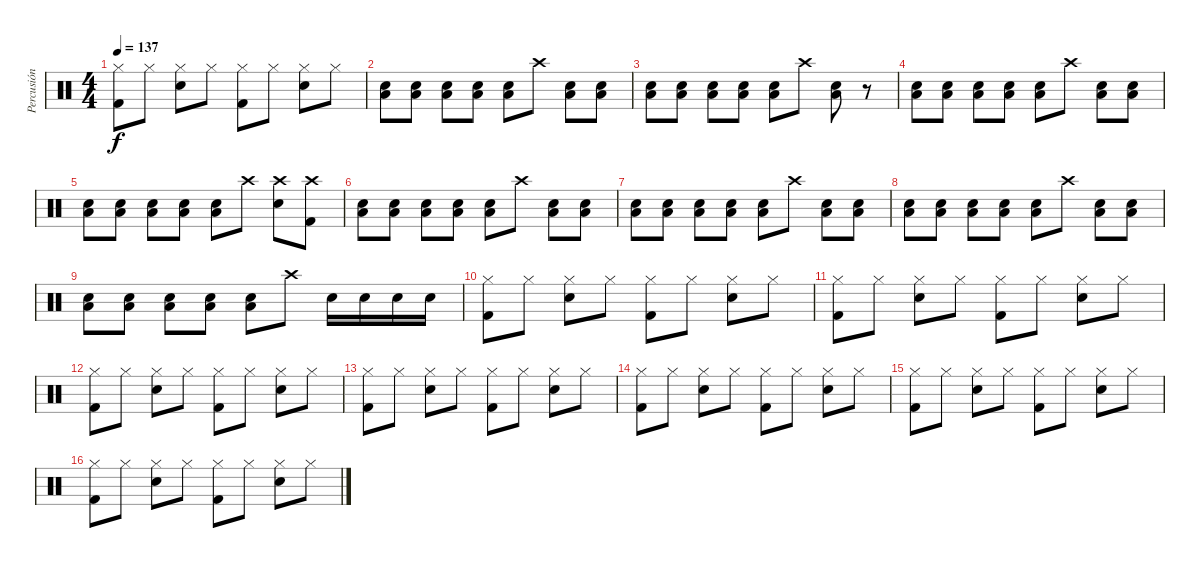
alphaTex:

\track ("Percusión" "Percusión") {instrument percussion}
\staff {score}
\articulation defaults
\ts (4 4)
\tempo 137
\clef neutral
\ks c
("Hi-Hat (closed)" "Kick (hit) 2").8{dy f} "Hi-Hat (closed)".8 ("Hi-Hat (closed)" "Electric Snare (hit)").8 "Hi-Hat (closed)".8 ("Hi-Hat (closed)" "Kick (hit) 2").8 "Hi-Hat (closed)".8 ("Hi-Hat (closed)" "Electric Snare (hit)").8 "Hi-Hat (closed)".8 |
("Electric Snare (hit)" "Low Floor Tom (hit)").8 ("Electric Snare (hit)" "Low Floor Tom (hit)").8 ("Electric Snare (hit)" "Low Floor Tom (hit)").8 ("Electric Snare (hit)" "Low Floor Tom (hit)").8 ("Electric Snare (hit)" "Low Floor Tom (hit)").8 "Crash high (hit)".8 ("Electric Snare (hit)" "Low Floor Tom (hit)").8 ("Electric Snare (hit)" "Low Floor Tom (hit)").8 |
("Electric Snare (hit)" "Low Floor Tom (hit)").8 ("Electric Snare (hit)" "Low Floor Tom (hit)").8 ("Electric Snare (hit)" "Low Floor Tom (hit)").8 ("Electric Snare (hit)" "Low Floor Tom (hit)").8 ("Electric Snare (hit)" "Low Floor Tom (hit)").8 "Crash high (hit)".8 ("Electric Snare (hit)" "Low Floor Tom (hit)").8 r.8 |
("Electric Snare (hit)" "Low Floor Tom (hit)").8 ("Electric Snare (hit)" "Low Floor Tom (hit)").8 ("Electric Snare (hit)" "Low Floor Tom (hit)").8 ("Electric Snare (hit)" "Low Floor Tom (hit)").8 ("Electric Snare (hit)" "Low Floor Tom (hit)").8 "Crash high (hit)".8 ("Electric Snare (hit)" "Low Floor Tom (hit)").8 ("Electric Snare (hit)" "Low Floor Tom (hit)").8 |
("Electric Snare (hit)" "Low Floor Tom (hit)").8 ("Electric Snare (hit)" "Low Floor Tom (hit)").8 ("Electric Snare (hit)" "Low Floor Tom (hit)").8 ("Electric Snare (hit)" "Low Floor Tom (hit)").8 ("Electric Snare (hit)" "Low Floor Tom (hit)").8 "Crash high (hit)".8 ("Crash high (hit)" "Electric Snare (hit)").8 ("Crash high (hit)" "Kick (hit) 2").8 |
("Electric Snare (hit)" "Low Floor Tom (hit)").8 ("Electric Snare (hit)" "Low Floor Tom (hit)").8 ("Electric Snare (hit)" "Low Floor Tom (hit)").8 ("Electric Snare (hit)" "Low Floor Tom (hit)").8 ("Electric Snare (hit)" "Low Floor Tom (hit)").8 "Crash high (hit)".8 ("Electric Snare (hit)" "Low Floor Tom (hit)").8 ("Electric Snare (hit)" "Low Floor Tom (hit)").8 |
("Electric Snare (hit)" "Low Floor Tom (hit)").8 ("Electric Snare (hit)" "Low Floor Tom (hit)").8 ("Electric Snare (hit)" "Low Floor Tom (hit)").8 ("Electric Snare (hit)" "Low Floor Tom (hit)").8 ("Electric Snare (hit)" "Low Floor Tom (hit)").8 "Crash high (hit)".8 ("Electric Snare (hit)" "Low Floor Tom (hit)").8 ("Electric Snare (hit)" "Low Floor Tom (hit)").8 |
("Electric Snare (hit)" "Low Floor Tom (hit)").8 ("Electric Snare (hit)" "Low Floor Tom (hit)").8 ("Electric Snare (hit)" "Low Floor Tom (hit)").8 ("Electric Snare (hit)" "Low Floor Tom (hit)").8 ("Electric Snare (hit)" "Low Floor Tom (hit)").8 "Crash high (hit)".8 ("Electric Snare (hit)" "Low Floor Tom (hit)").8 ("Electric Snare (hit)" "Low Floor Tom (hit)").8 |
("Electric Snare (hit)" "Low Floor Tom (hit)").8 ("Electric Snare (hit)" "Low Floor Tom (hit)").8 ("Electric Snare (hit)" "Low Floor Tom (hit)").8 ("Electric Snare (hit)" "Low Floor Tom (hit)").8 ("Electric Snare (hit)" "Low Floor Tom (hit)").8 "Crash high (hit)".8 "Electric Snare (hit)".16 "Electric Snare (hit)".16 "Electric Snare (hit)".16 "Electric Snare (hit)".16 |
("Hi-Hat (closed)" "Kick (hit) 2").8 "Hi-Hat (closed)".8 ("Hi-Hat (closed)" "Electric Snare (hit)").8 "Hi-Hat (closed)".8 ("Hi-Hat (closed)" "Kick (hit) 2").8 "Hi-Hat (closed)".8 ("Hi-Hat (closed)" "Electric Snare (hit)").8 "Hi-Hat (closed)".8 |
("Hi-Hat (closed)" "Kick (hit) 2").8 "Hi-Hat (closed)".8 ("Hi-Hat (closed)" "Electric Snare (hit)").8 "Hi-Hat (closed)".8 ("Hi-Hat (closed)" "Kick (hit) 2").8 "Hi-Hat (closed)".8 ("Hi-Hat (closed)" "Electric Snare (hit)").8 "Hi-Hat (closed)".8 |
("Hi-Hat (closed)" "Kick (hit) 2").8 "Hi-Hat (closed)".8 ("Hi-Hat (closed)" "Electric Snare (hit)").8 "Hi-Hat (closed)".8 ("Hi-Hat (closed)" "Kick (hit) 2").8 "Hi-Hat (closed)".8 ("Hi-Hat (closed)" "Electric Snare (hit)").8 "Hi-Hat (closed)".8 |
("Hi-Hat (closed)" "Kick (hit) 2").8 "Hi-Hat (closed)".8 ("Hi-Hat (closed)" "Electric Snare (hit)").8 "Hi-Hat (closed)".8 ("Hi-Hat (closed)" "Kick (hit) 2").8 "Hi-Hat (closed)".8 ("Hi-Hat (closed)" "Electric Snare (hit)").8 "Hi-Hat (closed)".8 |
("Hi-Hat (closed)" "Kick (hit) 2").8 "Hi-Hat (closed)".8 ("Hi-Hat (closed)" "Electric Snare (hit)").8 "Hi-Hat (closed)".8 ("Hi-Hat (closed)" "Kick (hit) 2").8 "Hi-Hat (closed)".8 ("Hi-Hat (closed)" "Electric Snare (hit)").8 "Hi-Hat (closed)".8 |
("Hi-Hat (closed)" "Kick (hit) 2").8 "Hi-Hat (closed)".8 ("Hi-Hat (closed)" "Electric Snare (hit)").8 "Hi-Hat (closed)".8 ("Hi-Hat (closed)" "Kick (hit) 2").8 "Hi-Hat (closed)".8 ("Hi-Hat (closed)" "Electric Snare (hit)").8 "Hi-Hat (closed)".8 |
("Hi-Hat (closed)" "Kick (hit) 2").8 "Hi-Hat (closed)".8 ("Hi-Hat (closed)" "Electric Snare (hit)").8 "Hi-Hat (closed)".8 ("Hi-Hat (closed)" "Kick (hit) 2").8 "Hi-Hat (closed)".8 ("Hi-Hat (closed)" "Electric Snare (hit)").8 "Hi-Hat (closed)".8
